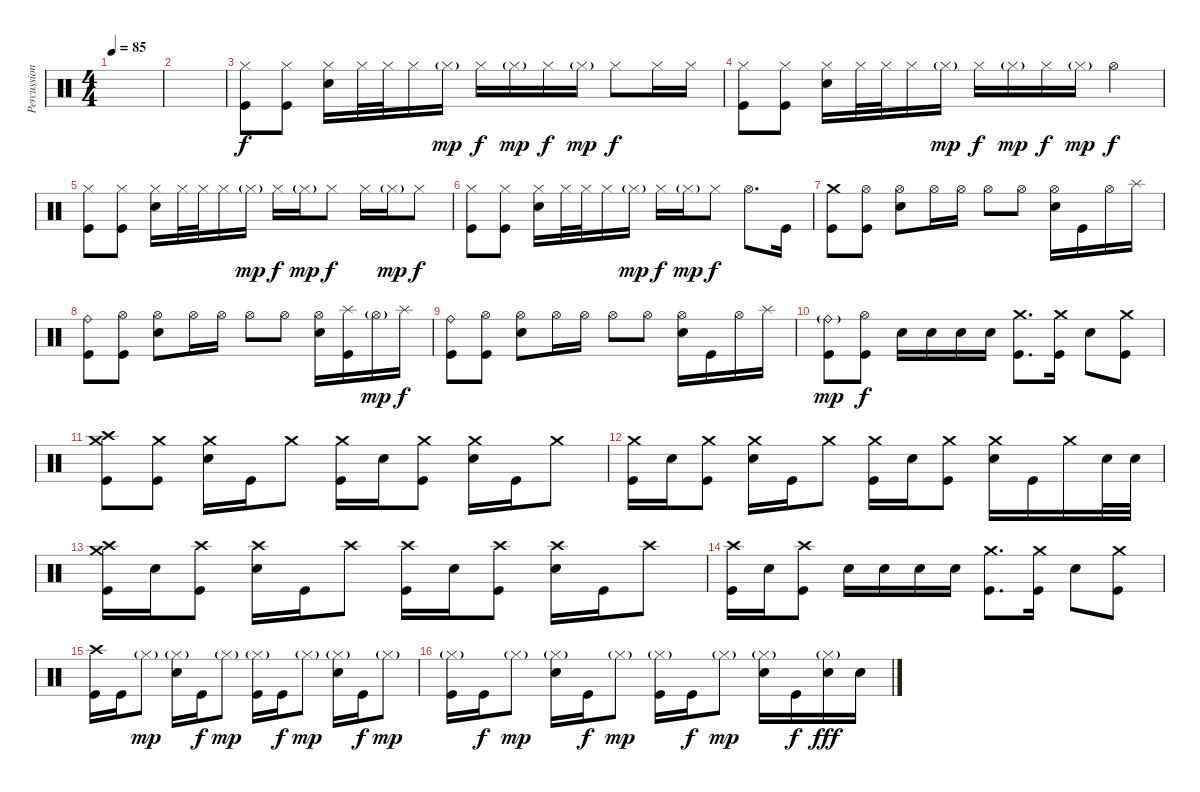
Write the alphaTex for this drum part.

\track ("Percussion" "Percussion") {instrument percussion}
\staff {score}
\articulation defaults
\ts (4 4)
\tempo 85
\clef neutral
\ks c
|
|
("Hi-Hat (closed)" "Kick (hit)").8 ("Hi-Hat (closed)" "Kick (hit)").8 ("Hi-Hat (closed)" "Snare (hit) 2").16 "Hi-Hat (closed)".32 "Hi-Hat (closed)".32 "Hi-Hat (closed)".16 "Hi-Hat (closed)"{g}.16{dy mp} "Hi-Hat (closed)".16{dy f} "Hi-Hat (closed)"{g}.16{dy mp} "Hi-Hat (closed)".16{dy f} "Hi-Hat (closed)"{g}.16{dy mp} "Hi-Hat (closed)".8{dy f} "Hi-Hat (closed)".16 "Hi-Hat (closed)".16 |
("Hi-Hat (closed)" "Kick (hit)").8 ("Hi-Hat (closed)" "Kick (hit)").8 ("Hi-Hat (closed)" "Snare (hit) 2").16 "Hi-Hat (closed)".32 "Hi-Hat (closed)".32 "Hi-Hat (closed)".16 "Hi-Hat (closed)"{g}.16{dy mp} "Hi-Hat (closed)".16{dy f} "Hi-Hat (closed)"{g}.16{dy mp} "Hi-Hat (closed)".16{dy f} "Hi-Hat (closed)"{g}.16{dy mp} "Hi-Hat (open)".4{dy f} |
("Hi-Hat (closed)" "Kick (hit)").8 ("Hi-Hat (closed)" "Kick (hit)").8 ("Hi-Hat (closed)" "Snare (hit) 2").16 "Hi-Hat (closed)".32 "Hi-Hat (closed)".32 "Hi-Hat (closed)".16 "Hi-Hat (closed)"{g}.16{dy mp} "Hi-Hat (closed)".16{dy f} "Hi-Hat (closed)"{g}.16{dy mp} "Hi-Hat (closed)".8{dy f} "Hi-Hat (closed)".16 "Hi-Hat (closed)"{g}.16{dy mp} "Hi-Hat (closed)".8{dy f} |
("Hi-Hat (closed)" "Kick (hit)").8 ("Hi-Hat (closed)" "Kick (hit)").8 ("Hi-Hat (closed)" "Snare (hit) 2").16 "Hi-Hat (closed)".32 "Hi-Hat (closed)".32 "Hi-Hat (closed)".16 "Hi-Hat (closed)"{g}.16{dy mp} "Hi-Hat (closed)".16{dy f} "Hi-Hat (closed)"{g}.16{dy mp} "Hi-Hat (closed)".8{dy f} "Hi-Hat (open)".8{d} "Kick (hit)".16 |
("Crash medium (hit)" "Kick (hit)").8 ("Hi-Hat (open)" "Kick (hit)").8 ("Hi-Hat (open)" "Snare (hit) 2").8 "Hi-Hat (open)".16 "Hi-Hat (open)".16 "Hi-Hat (open)".8 "Hi-Hat (open)".8 ("Hi-Hat (open)" "Snare (hit) 2").16 "Kick (hit)".16 "Hi-Hat (open)".16 "Splash (hit)".16 |
("Ride (bell)" "Kick (hit)").8 ("Hi-Hat (open)" "Kick (hit)").8 ("Hi-Hat (open)" "Snare (hit) 2").8 "Hi-Hat (open)".16 "Hi-Hat (open)".16 "Hi-Hat (open)".8 "Hi-Hat (open)".8 ("Hi-Hat (open)" "Snare (hit) 2").16 ("Splash (hit)" "Kick (hit)").16 "Hi-Hat (open)"{g}.16{dy mp} "Splash (hit)".16{dy f} |
("Ride (bell)" "Kick (hit)").8 ("Hi-Hat (open)" "Kick (hit)").8 ("Hi-Hat (open)" "Snare (hit) 2").8 "Hi-Hat (open)".16 "Hi-Hat (open)".16 "Hi-Hat (open)".8 "Hi-Hat (open)".8 ("Hi-Hat (open)" "Snare (hit) 2").16 "Kick (hit)".16 "Hi-Hat (open)".16 "Splash (hit)".16 |
("Ride (bell)"{g} "Kick (hit)").8{dy mp} ("Hi-Hat (open)" "Kick (hit)").8{dy f} "Snare (hit) 2".16 "Snare (hit) 2".16 "Snare (hit) 2".16 "Snare (hit) 2".16 ("Crash medium (hit)" "Kick (hit)").8{d} ("Crash medium (hit)" "Kick (hit)").16 "Snare (hit) 2".8 ("Crash medium (hit)" "Kick (hit)").8 |
("Crash medium (hit)" "Crash high (hit)" "Kick (hit)").8 ("Crash medium (hit)" "Kick (hit)").8 ("Crash medium (hit)" "Snare (hit) 2").16 "Kick (hit)".16 "Crash medium (hit)".8 ("Crash medium (hit)" "Kick (hit)").16 "Snare (hit) 2".16 ("Crash medium (hit)" "Kick (hit)").8 ("Crash medium (hit)" "Snare (hit) 2").16 "Kick (hit)".16 "Crash medium (hit)".8 |
("Crash medium (hit)" "Kick (hit)").16 "Snare (hit) 2".16 ("Crash medium (hit)" "Kick (hit)").8 ("Crash medium (hit)" "Snare (hit) 2").16 "Kick (hit)".16 "Crash medium (hit)".8 ("Crash medium (hit)" "Kick (hit)").16 "Snare (hit) 2".16 ("Crash medium (hit)" "Kick (hit)").8 ("Crash medium (hit)" "Snare (hit) 2").16 "Kick (hit)".16 "Crash medium (hit)".16 "Snare (hit) 2".32 "Snare (hit) 2".32 |
("Crash high (hit)" "Crash medium (hit)" "Kick (hit)").16 "Snare (hit) 2".16 ("Crash high (hit)" "Kick (hit)").8 ("Crash high (hit)" "Snare (hit) 2").16 "Kick (hit)".16 "Crash high (hit)".8 ("Crash high (hit)" "Kick (hit)").16 "Snare (hit) 2".16 ("Crash high (hit)" "Kick (hit)").8 ("Crash high (hit)" "Snare (hit) 2").16 "Kick (hit)".16 "Crash high (hit)".8 |
("Crash high (hit)" "Kick (hit)").16 "Snare (hit) 2".16 ("Crash high (hit)" "Kick (hit)").8 "Snare (hit) 2".16 "Snare (hit) 2".16 "Snare (hit) 2".16 "Snare (hit) 2".16 ("Crash medium (hit)" "Kick (hit)").8{d} ("Crash medium (hit)" "Kick (hit)").16 "Snare (hit) 2".8 ("Crash medium (hit)" "Kick (hit)").8 |
("Crash high (hit)" "Kick (hit)").16 "Kick (hit)".16 "Hi-Hat (closed)"{g}.8{dy mp} ("Hi-Hat (closed)"{g} "Snare (hit) 2").16 "Kick (hit)".16{dy f} "Hi-Hat (closed)"{g}.8{dy mp} ("Hi-Hat (closed)"{g} "Kick (hit)").16 "Kick (hit)".16{dy f} "Hi-Hat (closed)"{g}.8{dy mp} ("Hi-Hat (closed)"{g} "Snare (hit) 2").16 "Kick (hit)".16{dy f} "Hi-Hat (closed)"{g}.8{dy mp} |
("Hi-Hat (closed)"{g} "Kick (hit)").16 "Kick (hit)".16{dy f} "Hi-Hat (closed)"{g}.8{dy mp} ("Hi-Hat (closed)"{g} "Snare (hit) 2").16 "Kick (hit)".16{dy f} "Hi-Hat (closed)"{g}.8{dy mp} ("Hi-Hat (closed)"{g} "Kick (hit)").16 "Kick (hit)".16{dy f} "Hi-Hat (closed)"{g}.8{dy mp} ("Hi-Hat (closed)"{g} "Snare (hit) 2").16 "Kick (hit)".16{dy f} ("Hi-Hat (closed)"{g} "Snare (hit) 2").16{dy fff} "Snare (hit) 2".16
